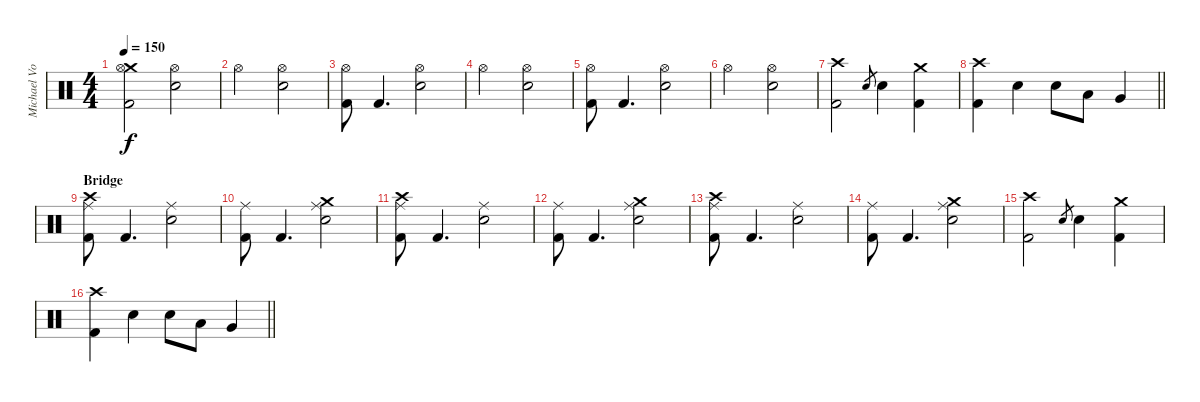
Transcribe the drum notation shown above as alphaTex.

\track ("Michael Von Knorring" "Michael Vo") {instrument percussion}
\staff {score}
\articulation defaults
\ts (4 4)
\tempo 150
\clef neutral
\ks c
("Crash medium (hit)" "Hi-Hat (open)" "Kick (hit) 2").2{dy f} ("Hi-Hat (open)" "Snare (hit) 2").2 |
"Hi-Hat (open)".2 ("Hi-Hat (open)" "Snare (hit) 2").2 |
("Hi-Hat (open)" "Kick (hit) 2").8 "Kick (hit) 2".4{d} ("Hi-Hat (open)" "Snare (hit) 2").2 |
"Hi-Hat (open)".2 ("Hi-Hat (open)" "Snare (hit) 2").2 |
("Hi-Hat (open)" "Kick (hit) 2").8 "Kick (hit) 2".4{d} ("Hi-Hat (open)" "Snare (hit) 2").2 |
"Hi-Hat (open)".2 ("Hi-Hat (open)" "Snare (hit) 2").2 |
("Crash high (hit)" "Kick (hit) 2").2 "Snare (hit) 2".8{gr} "Snare (hit) 2".4 ("Crash medium (hit)" "Kick (hit) 2").4 |
\barLineRight lightlight
("Crash high (hit)" "Kick (hit) 2").4 "Snare (hit) 2".4 "Snare (hit) 2".8 "Low Tom (hit)".8 "Very Low Tom (hit)".4 |
\section ("" "Bridge")
("Crash high (hit)" "Ride (middle)" "Kick (hit) 2").8 "Kick (hit) 2".4{d} ("Ride (middle)" "Snare (hit) 2").2 |
("Ride (middle)" "Kick (hit) 2").8 "Kick (hit) 2".4{d} ("Crash medium (hit)" "Ride (middle)" "Snare (hit) 2").2 |
("Crash high (hit)" "Ride (middle)" "Kick (hit) 2").8 "Kick (hit) 2".4{d} ("Ride (middle)" "Snare (hit) 2").2 |
("Ride (middle)" "Kick (hit) 2").8 "Kick (hit) 2".4{d} ("Crash medium (hit)" "Ride (middle)" "Snare (hit) 2").2 |
("Crash high (hit)" "Ride (middle)" "Kick (hit) 2").8 "Kick (hit) 2".4{d} ("Ride (middle)" "Snare (hit) 2").2 |
("Ride (middle)" "Kick (hit) 2").8 "Kick (hit) 2".4{d} ("Crash medium (hit)" "Ride (middle)" "Snare (hit) 2").2 |
("Crash high (hit)" "Kick (hit) 2").2 "Snare (hit) 2".8{gr} "Snare (hit) 2".4 ("Crash medium (hit)" "Kick (hit) 2").4 |
\barLineRight lightlight
("Crash high (hit)" "Kick (hit) 2").4 "Snare (hit) 2".4 "Snare (hit) 2".8 "Low Tom (hit)".8 "Very Low Tom (hit)".4
